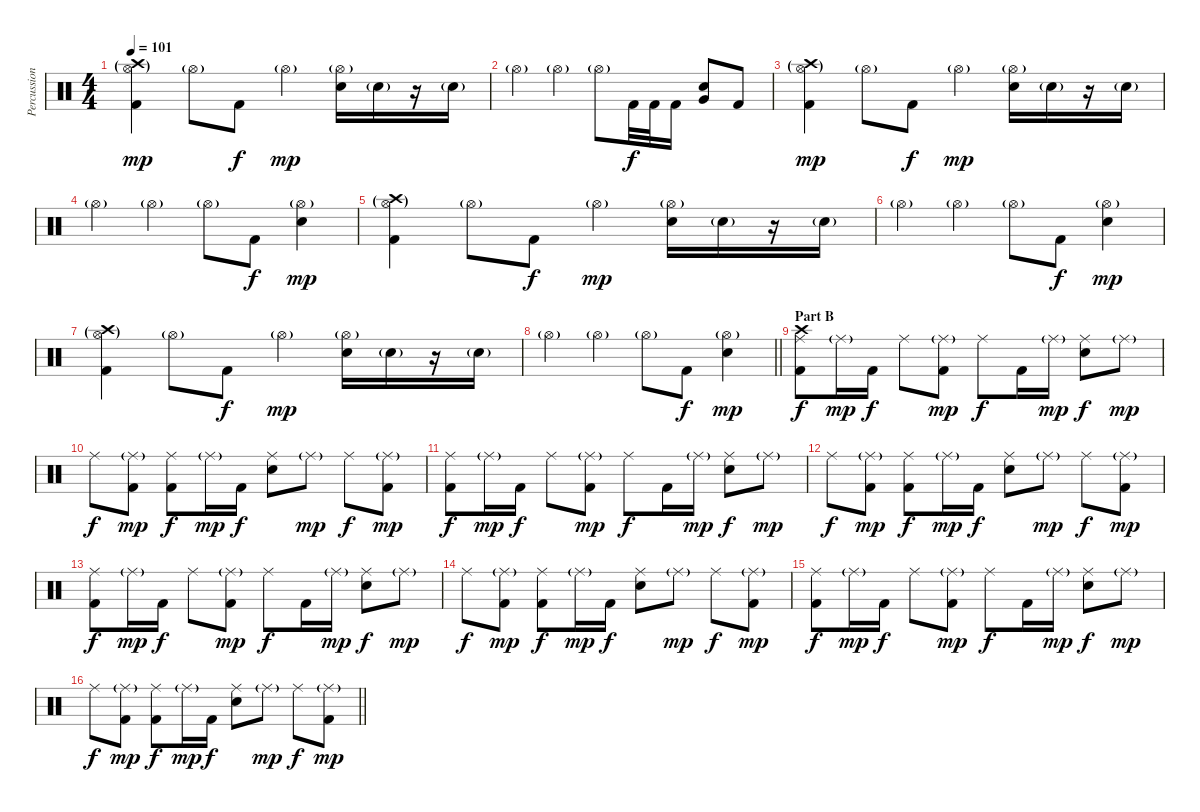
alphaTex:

\track ("Percussion" "Percussion") {instrument percussion}
\staff {score}
\articulation defaults
\ts (4 4)
\tempo 101
\clef neutral
\ks c
("Crash high (hit)"{g} "Hi-Hat (open)"{g} "Kick (hit) 2").4{dy mp} "Hi-Hat (open)"{g}.8 "Kick (hit) 2".8{dy f} "Hi-Hat (open)"{g}.4{dy mp} ("Electric Snare (hit)" "Hi-Hat (open)"{g}).16 "Electric Snare (hit)"{g}.16 r.16 "Electric Snare (hit)"{g}.16 |
"Hi-Hat (open)"{g}.4 "Hi-Hat (open)"{g}.4 "Hi-Hat (open)"{g}.8 "Kick (hit) 2".32{dy f} "Kick (hit) 2".32 "Kick (hit) 2".16 ("Electric Snare (hit)" "Very Low Tom (hit)").8 "Kick (hit) 2".8 |
("Crash high (hit)"{g} "Hi-Hat (open)"{g} "Kick (hit) 2").4{dy mp} "Hi-Hat (open)"{g}.8 "Kick (hit) 2".8{dy f} "Hi-Hat (open)"{g}.4{dy mp} ("Electric Snare (hit)" "Hi-Hat (open)"{g}).16 "Electric Snare (hit)"{g}.16 r.16 "Electric Snare (hit)"{g}.16 |
"Hi-Hat (open)"{g}.4 "Hi-Hat (open)"{g}.4 "Hi-Hat (open)"{g}.8 "Kick (hit) 2".8{dy f} ("Electric Snare (hit)" "Hi-Hat (open)"{g}).4{dy mp} |
("Crash high (hit)"{g} "Hi-Hat (open)"{g} "Kick (hit) 2").4 "Hi-Hat (open)"{g}.8 "Kick (hit) 2".8{dy f} "Hi-Hat (open)"{g}.4{dy mp} ("Electric Snare (hit)" "Hi-Hat (open)"{g}).16 "Electric Snare (hit)"{g}.16 r.16 "Electric Snare (hit)"{g}.16 |
"Hi-Hat (open)"{g}.4 "Hi-Hat (open)"{g}.4 "Hi-Hat (open)"{g}.8 "Kick (hit) 2".8{dy f} ("Electric Snare (hit)" "Hi-Hat (open)"{g}).4{dy mp} |
("Crash high (hit)"{g} "Hi-Hat (open)"{g} "Kick (hit) 2").4 "Hi-Hat (open)"{g}.8 "Kick (hit) 2".8{dy f} "Hi-Hat (open)"{g}.4{dy mp} ("Electric Snare (hit)" "Hi-Hat (open)"{g}).16 "Electric Snare (hit)"{g}.16 r.16 "Electric Snare (hit)"{g}.16 |
\barLineRight lightlight "Hi-Hat (open)"{g}.4 "Hi-Hat (open)"{g}.4 "Hi-Hat (open)"{g}.8 "Kick (hit) 2".8{dy f}
("Electric Snare (hit)" "Hi-Hat (open)"{g}).4{dy mp} |
\section ("" "Part B")
("Crash high (hit)" "Ride (middle)" "Kick (hit) 2").8{dy f} "Ride (middle)"{g}.16{dy mp} "Kick (hit) 2".16{dy f} "Ride (middle)".8 ("Ride (middle)"{g} "Kick (hit) 2").8{dy mp} "Ride (middle)".8{dy f} "Kick (hit) 2".16 "Ride (middle)"{g}.16{dy mp} ("Ride (middle)" "Electric Snare (hit)").8{dy f} "Ride (middle)"{g}.8{dy mp} |
"Ride (middle)".8{dy f} ("Ride (middle)"{g} "Kick (hit) 2").8{dy mp} ("Ride (middle)" "Kick (hit) 2").8{dy f} "Ride (middle)"{g}.16{dy mp} "Kick (hit) 2".16{dy f} ("Ride (middle)" "Electric Snare (hit)").8 "Ride (middle)"{g}.8{dy mp} "Ride (middle)".8{dy f} ("Ride (middle)"{g} "Kick (hit) 2").8{dy mp} |
("Ride (middle)" "Kick (hit) 2").8{dy f} "Ride (middle)"{g}.16{dy mp} "Kick (hit) 2".16{dy f} "Ride (middle)".8 ("Ride (middle)"{g} "Kick (hit) 2").8{dy mp} "Ride (middle)".8{dy f} "Kick (hit) 2".16 "Ride (middle)"{g}.16{dy mp} ("Ride (middle)" "Electric Snare (hit)").8{dy f} "Ride (middle)"{g}.8{dy mp} |
"Ride (middle)".8{dy f} ("Ride (middle)"{g} "Kick (hit) 2").8{dy mp} ("Ride (middle)" "Kick (hit) 2").8{dy f} "Ride (middle)"{g}.16{dy mp} "Kick (hit) 2".16{dy f} ("Ride (middle)" "Electric Snare (hit)").8 "Ride (middle)"{g}.8{dy mp} "Ride (middle)".8{dy f} ("Ride (middle)"{g} "Kick (hit) 2").8{dy mp} |
("Ride (middle)" "Kick (hit) 2").8{dy f} "Ride (middle)"{g}.16{dy mp} "Kick (hit) 2".16{dy f} "Ride (middle)".8 ("Ride (middle)"{g} "Kick (hit) 2").8{dy mp} "Ride (middle)".8{dy f} "Kick (hit) 2".16 "Ride (middle)"{g}.16{dy mp} ("Ride (middle)" "Electric Snare (hit)").8{dy f} "Ride (middle)"{g}.8{dy mp} |
"Ride (middle)".8{dy f} ("Ride (middle)"{g} "Kick (hit) 2").8{dy mp} ("Ride (middle)" "Kick (hit) 2").8{dy f} "Ride (middle)"{g}.16{dy mp} "Kick (hit) 2".16{dy f} ("Ride (middle)" "Electric Snare (hit)").8 "Ride (middle)"{g}.8{dy mp} "Ride (middle)".8{dy f} ("Ride (middle)"{g} "Kick (hit) 2").8{dy mp} |
("Ride (middle)" "Kick (hit) 2").8{dy f} "Ride (middle)"{g}.16{dy mp} "Kick (hit) 2".16{dy f} "Ride (middle)".8 ("Ride (middle)"{g} "Kick (hit) 2").8{dy mp} "Ride (middle)".8{dy f} "Kick (hit) 2".16 "Ride (middle)"{g}.16{dy mp} ("Ride (middle)" "Electric Snare (hit)").8{dy f} "Ride (middle)"{g}.8{dy mp} |
\barLineRight lightlight "Ride (middle)".8{dy f}
("Ride (middle)"{g} "Kick (hit) 2").8{dy mp} ("Ride (middle)" "Kick (hit) 2").8{dy f} "Ride (middle)"{g}.16{dy mp} "Kick (hit) 2".16{dy f} ("Ride (middle)" "Electric Snare (hit)").8 "Ride (middle)"{g}.8{dy mp} "Ride (middle)".8{dy f} ("Ride (middle)"{g} "Kick (hit) 2").8{dy mp}
